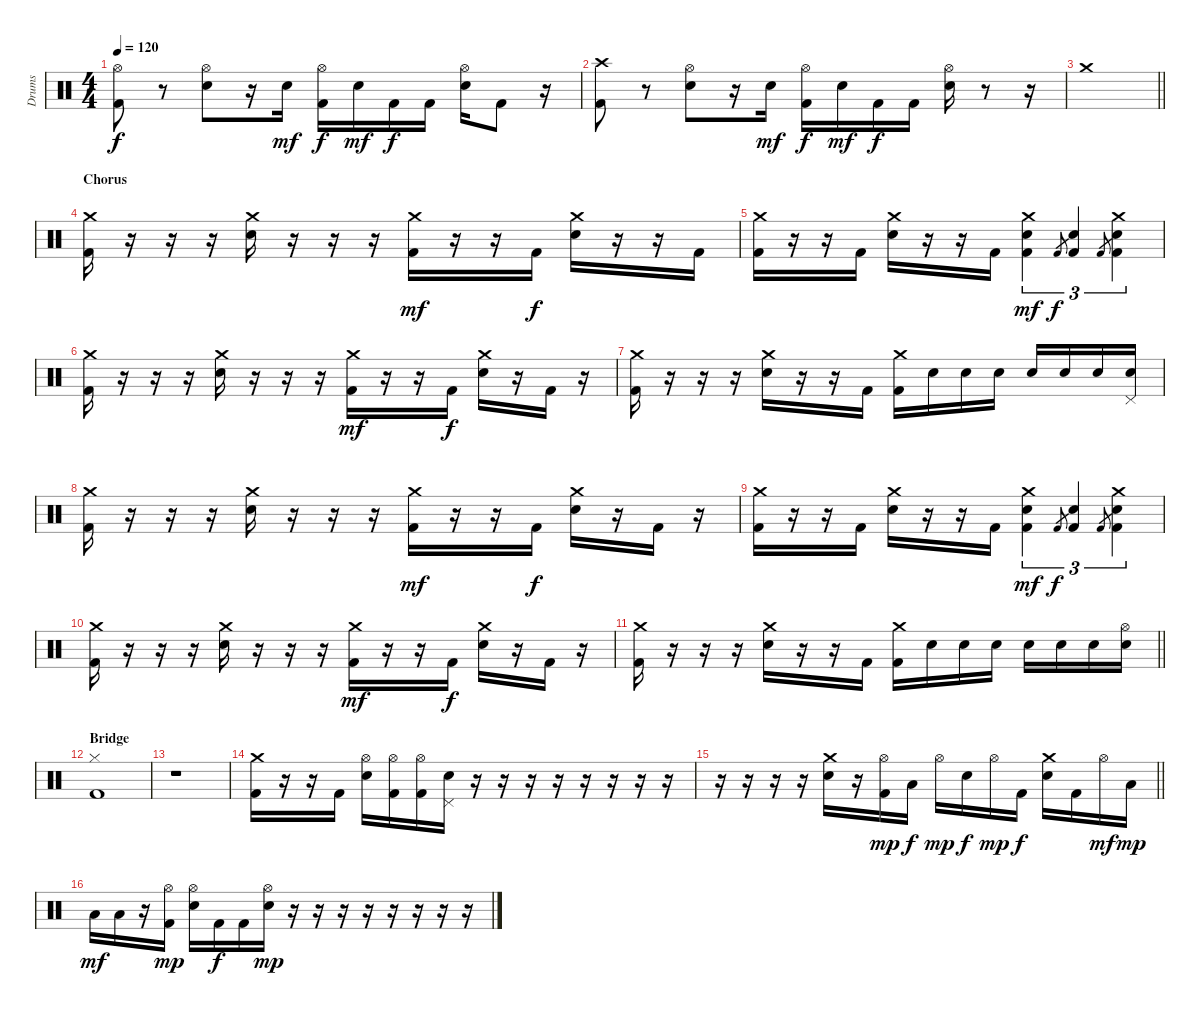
\track ("Drums" "Drums") {instrument percussion}
\staff {score}
\articulation defaults
\ts (4 4)
\tempo 120
\clef neutral
\ks c
("Hi-Hat (open)" "Kick (hit) 2").8{dy f} r.8 ("Hi-Hat (open)" "Electric Snare (hit)").8 r.16 "Electric Snare (hit)".16{dy mf} ("Hi-Hat (open)" "Kick (hit) 2").16{dy f} "Electric Snare (hit)".16{dy mf} "Kick (hit) 2".16{dy f} "Kick (hit) 2".16 ("Hi-Hat (open)" "Electric Snare (hit)").16 "Kick (hit) 2".8 r.16 |
("Crash high (hit)" "Kick (hit) 2").8 r.8 ("Hi-Hat (open)" "Electric Snare (hit)").8 r.16 "Electric Snare (hit)".16{dy mf} ("Hi-Hat (open)" "Kick (hit) 2").16{dy f} "Electric Snare (hit)".16{dy mf} "Kick (hit) 2".16{dy f} "Kick (hit) 2".16 ("Hi-Hat (open)" "Electric Snare (hit)").16 r.8 r.16 |
\barLineRight lightlight "Crash medium (hit)".1
|
\section ("" "Chorus")
("Crash medium (hit)" "Kick (hit) 2").16 r.16 r.16 r.16 ("Crash medium (hit)" "Electric Snare (hit)").16 r.16 r.16 r.16 ("Crash medium (hit)" "Kick (hit) 2").16{dy mf} r.16 r.16 "Kick (hit) 2".16{dy f} ("Crash medium (hit)" "Electric Snare (hit)").16 r.16 r.16 "Kick (hit) 2".16 |
("Crash medium (hit)" "Kick (hit) 2").16 r.16 r.16 "Kick (hit) 2".16 ("Crash medium (hit)" "Electric Snare (hit)").16 r.16 r.16 "Kick (hit) 2".16 ("Crash medium (hit)" "Kick (hit) 2" "Electric Snare (hit)").4{tu (3 2) dy mf} "Kick (hit) 2".8{gr dy f} ("Kick (hit) 2" "Electric Snare (hit)").4{tu (3 2)} "Kick (hit) 2".8{gr} ("Crash medium (hit)" "Kick (hit) 2" "Electric Snare (hit)").4{tu (3 2)} |
("Crash medium (hit)" "Kick (hit) 2").16 r.16 r.16 r.16 ("Crash medium (hit)" "Electric Snare (hit)").16 r.16 r.16 r.16 ("Crash medium (hit)" "Kick (hit) 2").16{dy mf} r.16 r.16 "Kick (hit) 2".16{dy f} ("Crash medium (hit)" "Electric Snare (hit)").16 r.16 "Kick (hit) 2".16 r.16 |
("Crash medium (hit)" "Kick (hit) 2").16 r.16 r.16 r.16 ("Crash medium (hit)" "Electric Snare (hit)").16 r.16 r.16 "Kick (hit) 2".16 ("Crash medium (hit)" "Kick (hit) 2").16 "Electric Snare (hit)".16 "Electric Snare (hit)".16 "Electric Snare (hit)".16 "Electric Snare (hit)".16 "Electric Snare (hit)".16 "Electric Snare (hit)".16 ("Pedal Hi-Hat (hit)" "Electric Snare (hit)").16 |
("Crash medium (hit)" "Kick (hit) 2").16 r.16 r.16 r.16 ("Crash medium (hit)" "Electric Snare (hit)").16 r.16 r.16 r.16 ("Crash medium (hit)" "Kick (hit) 2").16{dy mf} r.16 r.16 "Kick (hit) 2".16{dy f} ("Crash medium (hit)" "Electric Snare (hit)").16 r.16 "Kick (hit) 2".16 r.16 |
("Crash medium (hit)" "Kick (hit) 2").16 r.16 r.16 "Kick (hit) 2".16 ("Crash medium (hit)" "Electric Snare (hit)").16 r.16 r.16 "Kick (hit) 2".16 ("Crash medium (hit)" "Kick (hit) 2" "Electric Snare (hit)").4{tu (3 2) dy mf} "Kick (hit) 2".8{gr dy f} ("Kick (hit) 2" "Electric Snare (hit)").4{tu (3 2)} "Kick (hit) 2".8{gr} ("Crash medium (hit)" "Kick (hit) 2" "Electric Snare (hit)").4{tu (3 2)} |
("Crash medium (hit)" "Kick (hit) 2").16 r.16 r.16 r.16 ("Crash medium (hit)" "Electric Snare (hit)").16 r.16 r.16 r.16 ("Crash medium (hit)" "Kick (hit) 2").16{dy mf} r.16 r.16 "Kick (hit) 2".16{dy f} ("Crash medium (hit)" "Electric Snare (hit)").16 r.16 "Kick (hit) 2".16 r.16 |
\barLineRight lightlight
("Crash medium (hit)" "Kick (hit) 2").16 r.16 r.16 r.16 ("Crash medium (hit)" "Electric Snare (hit)").16 r.16 r.16 "Kick (hit) 2".16 ("Crash medium (hit)" "Kick (hit) 2").16 "Electric Snare (hit)".16 "Electric Snare (hit)".16 "Electric Snare (hit)".16 "Electric Snare (hit)".16 "Electric Snare (hit)".16 "Electric Snare (hit)".16 ("Hi-Hat (open)" "Electric Snare (hit)").16 |
\section ("" "Bridge")
("Hi-Hat (closed)" "Kick (hit) 2").1 |
r.1 |
("Crash medium (hit)" "Kick (hit) 2").16 r.16 r.16 "Kick (hit) 2".16 ("Hi-Hat (open)" "Electric Snare (hit)").16 ("Hi-Hat (open)" "Kick (hit) 2").16 ("Hi-Hat (open)" "Kick (hit) 2").16 ("Pedal Hi-Hat (hit)" "Electric Snare (hit)").16 r.16 r.16 r.16 r.16 r.16 r.16 r.16 r.16 |
\barLineRight lightlight
r.16 r.16 r.16 r.16 ("Crash medium (hit)" "Electric Snare (hit)").16 r.16 ("Hi-Hat (open)" "Kick (hit) 2").16{dy mp} "Low Tom (hit)".16{dy f} "Hi-Hat (open)".16{dy mp} "Electric Snare (hit)".16{dy f} "Hi-Hat (open)".16{dy mp} "Kick (hit) 2".16{dy f} ("Crash medium (hit)" "Electric Snare (hit)").16 "Kick (hit) 2".16 "Hi-Hat (open)".16{dy mf} "Low Floor Tom (hit)".16{dy mp} |
\section ("" "")
"Low Floor Tom (hit)".16{dy mf} "Low Floor Tom (hit)".16 r.16 ("Hi-Hat (open)" "Kick (hit) 2").16{dy mp} ("Hi-Hat (open)" "Electric Snare (hit)").16 "Kick (hit) 2".16{dy f} "Kick (hit) 2".16 ("Hi-Hat (open)" "Electric Snare (hit)").16{dy mp} r.16 r.16 r.16 r.16 r.16 r.16 r.16 r.16
